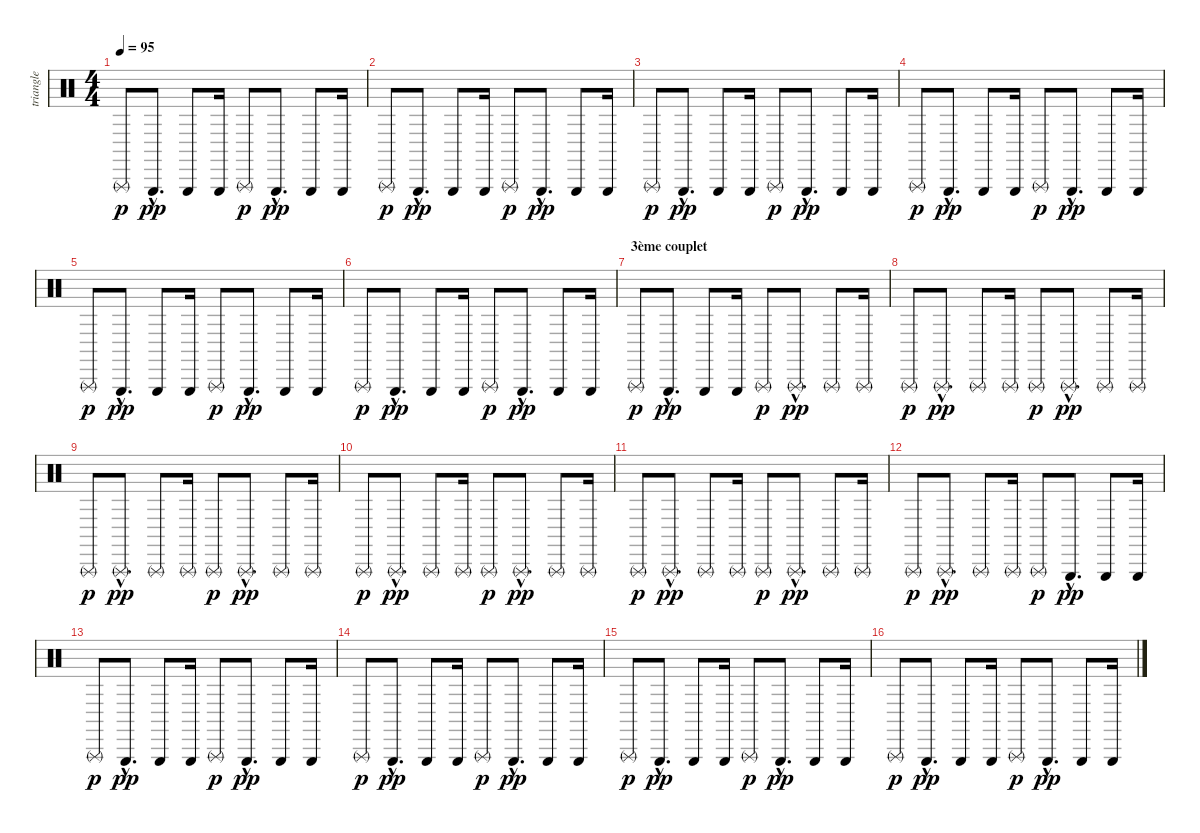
\track ("triangle" "triangle") {instrument percussion}
\staff {score}
\articulation defaults
\ts (4 4)
\tempo 95
\clef neutral
\ks c "Triangle (rnute)".8{dy p} "Triangle (hit)"{hac}.8{d dy pp} "Triangle (hit)".8 "Triangle (hit)".16 "Triangle (rnute)".8{dy p} "Triangle (hit)"{hac}.8{d dy pp} "Triangle (hit)".8 "Triangle (hit)".16
|
"Triangle (rnute)".8{dy p} "Triangle (hit)"{hac}.8{d dy pp} "Triangle (hit)".8 "Triangle (hit)".16 "Triangle (rnute)".8{dy p} "Triangle (hit)"{hac}.8{d dy pp} "Triangle (hit)".8 "Triangle (hit)".16 |
"Triangle (rnute)".8{dy p} "Triangle (hit)"{hac}.8{d dy pp} "Triangle (hit)".8 "Triangle (hit)".16 "Triangle (rnute)".8{dy p} "Triangle (hit)"{hac}.8{d dy pp} "Triangle (hit)".8 "Triangle (hit)".16 |
"Triangle (rnute)".8{dy p} "Triangle (hit)"{hac}.8{d dy pp} "Triangle (hit)".8 "Triangle (hit)".16 "Triangle (rnute)".8{dy p} "Triangle (hit)"{hac}.8{d dy pp} "Triangle (hit)".8 "Triangle (hit)".16 |
"Triangle (rnute)".8{dy p} "Triangle (hit)"{hac}.8{d dy pp} "Triangle (hit)".8 "Triangle (hit)".16 "Triangle (rnute)".8{dy p} "Triangle (hit)"{hac}.8{d dy pp} "Triangle (hit)".8 "Triangle (hit)".16 |
"Triangle (rnute)".8{dy p} "Triangle (hit)"{hac}.8{d dy pp} "Triangle (hit)".8 "Triangle (hit)".16 "Triangle (rnute)".8{dy p} "Triangle (hit)"{hac}.8{d dy pp} "Triangle (hit)".8 "Triangle (hit)".16 |
\section ("" "3ème couplet")
"Triangle (rnute)".8{dy p} "Triangle (hit)"{hac}.8{d dy pp} "Triangle (hit)".8 "Triangle (hit)".16 "Triangle (rnute)".8{dy p} "Triangle (rnute)"{hac}.8{d dy pp} "Triangle (rnute)".8 "Triangle (rnute)".16 |
"Triangle (rnute)".8{dy p} "Triangle (rnute)"{hac}.8{d dy pp} "Triangle (rnute)".8 "Triangle (rnute)".16 "Triangle (rnute)".8{dy p} "Triangle (rnute)"{hac}.8{d dy pp} "Triangle (rnute)".8 "Triangle (rnute)".16 |
"Triangle (rnute)".8{dy p} "Triangle (rnute)"{hac}.8{d dy pp} "Triangle (rnute)".8 "Triangle (rnute)".16 "Triangle (rnute)".8{dy p} "Triangle (rnute)"{hac}.8{d dy pp} "Triangle (rnute)".8 "Triangle (rnute)".16 |
"Triangle (rnute)".8{dy p} "Triangle (rnute)"{hac}.8{d dy pp} "Triangle (rnute)".8 "Triangle (rnute)".16 "Triangle (rnute)".8{dy p} "Triangle (rnute)"{hac}.8{d dy pp} "Triangle (rnute)".8 "Triangle (rnute)".16 |
"Triangle (rnute)".8{dy p} "Triangle (rnute)"{hac}.8{d dy pp} "Triangle (rnute)".8 "Triangle (rnute)".16 "Triangle (rnute)".8{dy p} "Triangle (rnute)"{hac}.8{d dy pp} "Triangle (rnute)".8 "Triangle (rnute)".16 |
"Triangle (rnute)".8{dy p} "Triangle (rnute)"{hac}.8{d dy pp} "Triangle (rnute)".8 "Triangle (rnute)".16 "Triangle (rnute)".8{dy p} "Triangle (hit)"{hac}.8{d dy pp} "Triangle (hit)".8 "Triangle (hit)".16 |
"Triangle (rnute)".8{dy p} "Triangle (hit)"{hac}.8{d dy pp} "Triangle (hit)".8 "Triangle (hit)".16 "Triangle (rnute)".8{dy p} "Triangle (hit)"{hac}.8{d dy pp} "Triangle (hit)".8 "Triangle (hit)".16 |
"Triangle (rnute)".8{dy p} "Triangle (hit)"{hac}.8{d dy pp} "Triangle (hit)".8 "Triangle (hit)".16 "Triangle (rnute)".8{dy p} "Triangle (hit)"{hac}.8{d dy pp} "Triangle (hit)".8 "Triangle (hit)".16 |
"Triangle (rnute)".8{dy p} "Triangle (hit)"{hac}.8{d dy pp} "Triangle (hit)".8 "Triangle (hit)".16 "Triangle (rnute)".8{dy p} "Triangle (hit)"{hac}.8{d dy pp} "Triangle (hit)".8 "Triangle (hit)".16 |
"Triangle (rnute)".8{dy p} "Triangle (hit)"{hac}.8{d dy pp} "Triangle (hit)".8 "Triangle (hit)".16 "Triangle (rnute)".8{dy p} "Triangle (hit)"{hac}.8{d dy pp} "Triangle (hit)".8 "Triangle (hit)".16
